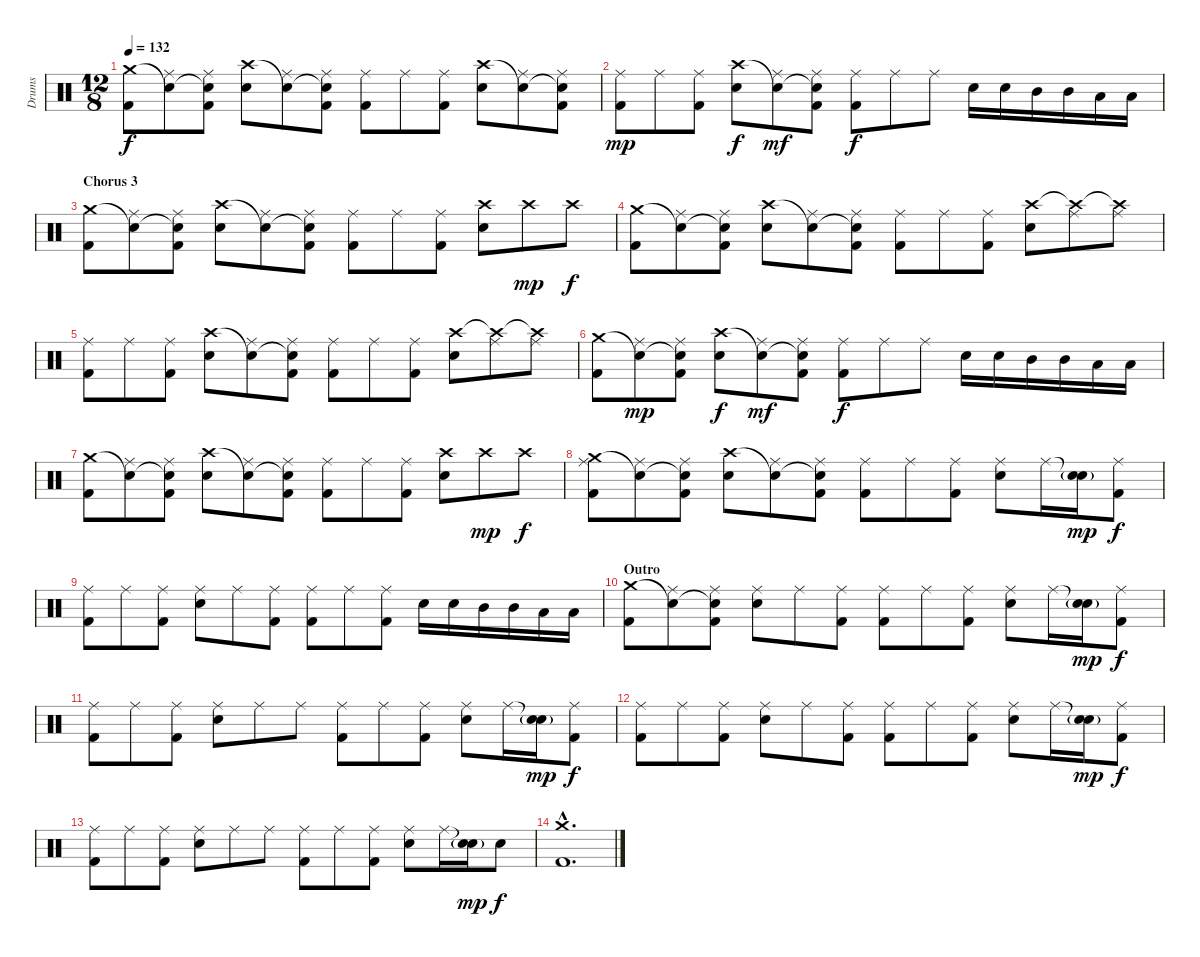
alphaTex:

\track ("Drums" "Drums") {instrument percussion}
\staff {score}
\articulation defaults
\ts (12 8)
\tempo 132
\clef neutral
\ks c
("Crash medium (hit)" "Kick (hit) 2").8{dy f} ("Snare (hit)"{t} "Ride (middle)").8 ("Snare (hit)"{t} "Ride (middle)" "Kick (hit) 2").8 ("Crash high (hit)" "Electric Snare (hit)").8 ("Snare (hit)"{t} "Ride (middle)").8 ("Snare (hit)"{t} "Ride (middle)" "Kick (hit) 2").8 ("Ride (middle)" "Kick (hit) 2").8 "Ride (middle)".8 ("Ride (middle)" "Kick (hit) 2").8 ("Crash high (hit)" "Electric Snare (hit)").8 ("Snare (hit)"{t} "Ride (middle)").8 ("Snare (hit)"{t} "Ride (middle)" "Kick (hit) 2").8 |
("Ride (middle)" "Kick (hit) 2").8{dy mp} "Ride (middle)".8 ("Ride (middle)" "Kick (hit) 2").8 ("Crash high (hit)" "Electric Snare (hit)").8{dy f} ("Snare (hit)"{t} "Ride (middle)").8{dy mf} ("Snare (hit)"{t} "Ride (middle)" "Kick (hit) 2").8 ("Ride (middle)" "Kick (hit) 2").8{dy f} "Ride (middle)".8 "Ride (middle)".8 "Electric Snare (hit)".16 "Electric Snare (hit)".16 "Mid Tom (hit)".16 "Mid Tom (hit)".16 "Low Tom (hit)".16 "Low Tom (hit)".16 |
\section ("" "Chorus 3")
("Crash medium (hit)" "Kick (hit) 2").8 ("Snare (hit)"{t} "Ride (middle)").8 ("Snare (hit)"{t} "Ride (middle)" "Kick (hit) 2").8 ("Crash high (hit)" "Electric Snare (hit)").8 ("Snare (hit)"{t} "Ride (middle)").8 ("Snare (hit)"{t} "Ride (middle)" "Kick (hit) 2").8 ("Ride (middle)" "Kick (hit) 2").8 "Ride (middle)".8 ("Ride (middle)" "Kick (hit) 2").8 ("Crash high (hit)" "Electric Snare (hit)").8 "Crash high (hit)".8{dy mp} "Crash high (hit)".8{dy f} |
("Crash medium (hit)" "Kick (hit) 2").8 ("Snare (hit)"{t} "Ride (middle)").8 ("Snare (hit)"{t} "Ride (middle)" "Kick (hit) 2").8 ("Crash high (hit)" "Electric Snare (hit)").8 ("Snare (hit)"{t} "Ride (middle)").8 ("Snare (hit)"{t} "Ride (middle)" "Kick (hit) 2").8 ("Ride (middle)" "Kick (hit) 2").8 "Ride (middle)".8 ("Ride (middle)" "Kick (hit) 2").8 ("Crash high (hit)" "Electric Snare (hit)").8 ("Crash high (hit)"{t} "Ride (middle)").8 ("Crash high (hit)"{t} "Ride (middle)").8 |
("Ride (middle)" "Kick (hit) 2").8 "Ride (middle)".8 ("Ride (middle)" "Kick (hit) 2").8 ("Crash high (hit)" "Electric Snare (hit)").8 ("Snare (hit)"{t} "Ride (middle)").8 ("Snare (hit)"{t} "Ride (middle)" "Kick (hit) 2").8 ("Ride (middle)" "Kick (hit) 2").8 "Ride (middle)".8 ("Ride (middle)" "Kick (hit) 2").8 ("Crash high (hit)" "Electric Snare (hit)").8 ("Crash high (hit)"{t} "Ride (middle)").8 ("Crash high (hit)"{t} "Ride (middle)").8 |
("Crash medium (hit)" "Kick (hit) 2").8 ("Snare (hit)"{t} "Ride (middle)").8{dy mp} ("Snare (hit)"{t} "Ride (middle)" "Kick (hit) 2").8 ("Crash high (hit)" "Electric Snare (hit)").8{dy f} ("Snare (hit)"{t} "Ride (middle)").8{dy mf} ("Snare (hit)"{t} "Ride (middle)" "Kick (hit) 2").8 ("Ride (middle)" "Kick (hit) 2").8{dy f} "Ride (middle)".8 "Ride (middle)".8 "Electric Snare (hit)".16 "Electric Snare (hit)".16 "Mid Tom (hit)".16 "Mid Tom (hit)".16 "Low Tom (hit)".16 "Low Tom (hit)".16 |
("Crash medium (hit)" "Kick (hit) 2").8 ("Snare (hit)"{t} "Ride (middle)").8 ("Snare (hit)"{t} "Ride (middle)" "Kick (hit) 2").8 ("Crash high (hit)" "Electric Snare (hit)").8 ("Snare (hit)"{t} "Ride (middle)").8 ("Snare (hit)"{t} "Ride (middle)" "Kick (hit) 2").8 ("Ride (middle)" "Kick (hit) 2").8 "Ride (middle)".8 ("Ride (middle)" "Kick (hit) 2").8 ("Crash high (hit)" "Electric Snare (hit)").8 "Crash high (hit)".8{dy mp} "Crash high (hit)".8{dy f} |
("Crash medium (hit)" "Ride (middle)" "Kick (hit) 2").8 ("Snare (hit)"{t} "Ride (middle)").8 ("Snare (hit)"{t} "Ride (middle)" "Kick (hit) 2").8 ("Crash high (hit)" "Electric Snare (hit)").8 ("Snare (hit)"{t} "Ride (middle)").8 ("Snare (hit)"{t} "Ride (middle)" "Kick (hit) 2").8 ("Ride (middle)" "Kick (hit) 2").8 "Ride (middle)".8 ("Ride (middle)" "Kick (hit) 2").8 ("Ride (middle)" "Electric Snare (hit)").8 "Ride (middle)".16 ("Snare (hit)"{t} "Electric Snare (hit)"{g}).16{dy mp} ("Ride (middle)" "Kick (hit) 2").8{dy f} |
("Ride (middle)" "Kick (hit) 2").8 "Ride (middle)".8 ("Ride (middle)" "Kick (hit) 2").8 ("Ride (middle)" "Electric Snare (hit)").8 "Ride (middle)".8 ("Ride (middle)" "Kick (hit) 2").8 ("Ride (middle)" "Kick (hit) 2").8 "Ride (middle)".8 ("Ride (middle)" "Kick (hit) 2").8 "Electric Snare (hit)".16 "Electric Snare (hit)".16 "Mid Tom (hit)".16 "Mid Tom (hit)".16 "Low Tom (hit)".16 "Low Tom (hit)".16 |
\section ("" "Outro")
("Crash medium (hit)" "Kick (hit) 2").8 ("Snare (hit)"{t} "Ride (middle)").8 ("Snare (hit)"{t} "Ride (middle)" "Kick (hit) 2").8 ("Ride (middle)" "Electric Snare (hit)").8 "Ride (middle)".8 ("Ride (middle)" "Kick (hit) 2").8 ("Ride (middle)" "Kick (hit) 2").8 "Ride (middle)".8 ("Ride (middle)" "Kick (hit) 2").8 ("Ride (middle)" "Electric Snare (hit)").8 "Ride (middle)".16 ("Snare (hit)"{t} "Electric Snare (hit)"{g}).16{dy mp} ("Ride (middle)" "Kick (hit) 2").8{dy f} |
("Ride (middle)" "Kick (hit) 2").8 "Ride (middle)".8 ("Ride (middle)" "Kick (hit) 2").8 ("Ride (middle)" "Electric Snare (hit)").8 "Ride (middle)".8 "Ride (middle)".8 ("Ride (middle)" "Kick (hit) 2").8 "Ride (middle)".8 ("Ride (middle)" "Kick (hit) 2").8 ("Ride (middle)" "Electric Snare (hit)").8 "Ride (middle)".16 ("Snare (hit)"{t} "Electric Snare (hit)"{g}).16{dy mp} ("Ride (middle)" "Kick (hit) 2").8{dy f} |
("Ride (middle)" "Kick (hit) 2").8 "Ride (middle)".8 ("Ride (middle)" "Kick (hit) 2").8 ("Ride (middle)" "Electric Snare (hit)").8 "Ride (middle)".8 ("Ride (middle)" "Kick (hit) 2").8 ("Ride (middle)" "Kick (hit) 2").8 "Ride (middle)".8 ("Ride (middle)" "Kick (hit) 2").8 ("Ride (middle)" "Electric Snare (hit)").8 "Ride (middle)".16 ("Snare (hit)"{t} "Electric Snare (hit)"{g}).16{dy mp} ("Ride (middle)" "Kick (hit) 2").8{dy f} |
("Ride (middle)" "Kick (hit) 2").8 "Ride (middle)".8 ("Ride (middle)" "Kick (hit) 2").8 ("Ride (middle)" "Electric Snare (hit)").8 "Ride (middle)".8 "Ride (middle)".8 ("Ride (middle)" "Kick (hit) 2").8 "Ride (middle)".8 ("Ride (middle)" "Kick (hit) 2").8 ("Ride (middle)" "Electric Snare (hit)").8 "Ride (middle)".16 ("Snare (hit)"{t} "Electric Snare (hit)"{g}).16{dy mp} "Electric Snare (hit)".8{dy f} |
("Crash medium (hit)"{hac} "Kick (hit) 2"{hac}).1{d}
